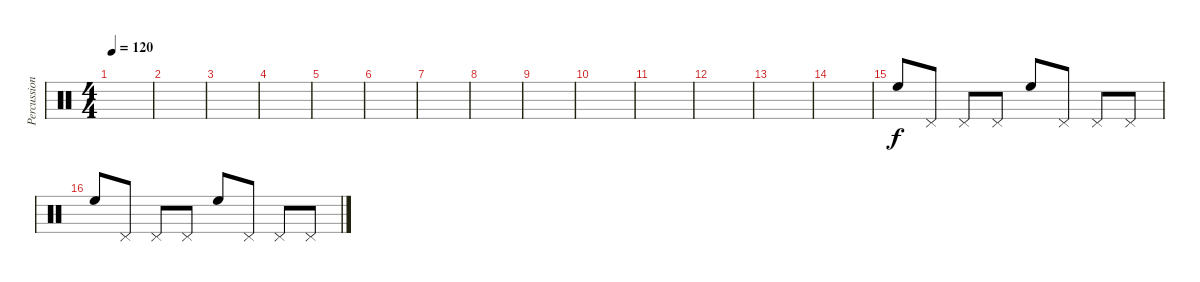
\track ("Percussion" "Percussion") {instrument percussion}
\staff {score}
\articulation defaults
\ts (4 4)
\tempo 120
\clef neutral
\ks c
|
|
|
|
|
|
|
|
|
|
|
|
|
|
"High Floor Tom (hit)".8 "Pedal Hi-Hat (hit)".8 "Pedal Hi-Hat (hit)".8 "Pedal Hi-Hat (hit)".8 "High Floor Tom (hit)".8 "Pedal Hi-Hat (hit)".8 "Pedal Hi-Hat (hit)".8 "Pedal Hi-Hat (hit)".8 |
"High Floor Tom (hit)".8 "Pedal Hi-Hat (hit)".8 "Pedal Hi-Hat (hit)".8 "Pedal Hi-Hat (hit)".8 "High Floor Tom (hit)".8 "Pedal Hi-Hat (hit)".8 "Pedal Hi-Hat (hit)".8 "Pedal Hi-Hat (hit)".8
